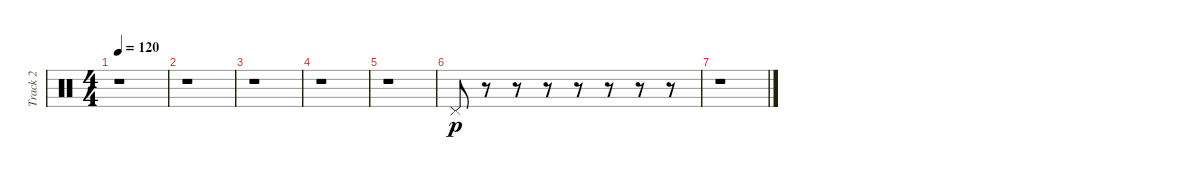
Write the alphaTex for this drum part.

\track ("Track 2" "Track 2") {instrument percussion}
\staff {score}
\articulation defaults
\ts (4 4)
\tempo 120
\clef neutral
\ks c
r.1{dy f} |
r.1 |
r.1 |
r.1 |
r.1 |
"Pedal Hi-Hat (hit)".8{dy p} r.8 r.8 r.8 r.8 r.8 r.8 r.8 |
r.1
